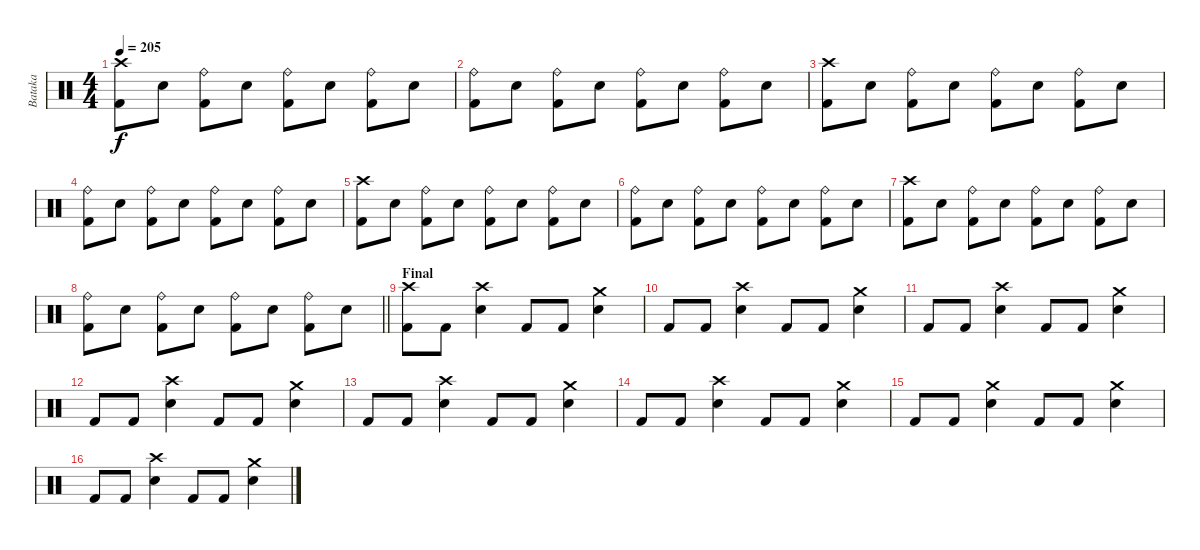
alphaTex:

\track ("Bataka" "Bataka") {instrument percussion}
\staff {score}
\articulation defaults
\ts (4 4)
\tempo 205
\clef neutral
\ks c
("Crash high (hit)" "Kick (hit) 2").8{dy f} "Snare (hit) 2".8 ("Ride (bell)" "Kick (hit) 2").8 "Snare (hit) 2".8 ("Ride (bell)" "Kick (hit) 2").8 "Snare (hit) 2".8 ("Ride (bell)" "Kick (hit) 2").8 "Snare (hit) 2".8 |
("Ride (bell)" "Kick (hit) 2").8 "Snare (hit) 2".8 ("Ride (bell)" "Kick (hit) 2").8 "Snare (hit) 2".8 ("Ride (bell)" "Kick (hit) 2").8 "Snare (hit) 2".8 ("Ride (bell)" "Kick (hit) 2").8 "Snare (hit) 2".8 |
("Crash high (hit)" "Kick (hit) 2").8 "Snare (hit) 2".8 ("Ride (bell)" "Kick (hit) 2").8 "Snare (hit) 2".8 ("Ride (bell)" "Kick (hit) 2").8 "Snare (hit) 2".8 ("Ride (bell)" "Kick (hit) 2").8 "Snare (hit) 2".8 |
("Ride (bell)" "Kick (hit) 2").8 "Snare (hit) 2".8 ("Ride (bell)" "Kick (hit) 2").8 "Snare (hit) 2".8 ("Ride (bell)" "Kick (hit) 2").8 "Snare (hit) 2".8 ("Ride (bell)" "Kick (hit) 2").8 "Snare (hit) 2".8 |
("Crash high (hit)" "Kick (hit) 2").8 "Snare (hit) 2".8 ("Ride (bell)" "Kick (hit) 2").8 "Snare (hit) 2".8 ("Ride (bell)" "Kick (hit) 2").8 "Snare (hit) 2".8 ("Ride (bell)" "Kick (hit) 2").8 "Snare (hit) 2".8 |
("Ride (bell)" "Kick (hit) 2").8 "Snare (hit) 2".8 ("Ride (bell)" "Kick (hit) 2").8 "Snare (hit) 2".8 ("Ride (bell)" "Kick (hit) 2").8 "Snare (hit) 2".8 ("Ride (bell)" "Kick (hit) 2").8 "Snare (hit) 2".8 |
("Crash high (hit)" "Kick (hit) 2").8 "Snare (hit) 2".8 ("Ride (bell)" "Kick (hit) 2").8 "Snare (hit) 2".8 ("Ride (bell)" "Kick (hit) 2").8 "Snare (hit) 2".8 ("Ride (bell)" "Kick (hit) 2").8 "Snare (hit) 2".8 |
\barLineRight lightlight
("Ride (bell)" "Kick (hit) 2").8 "Snare (hit) 2".8 ("Ride (bell)" "Kick (hit) 2").8 "Snare (hit) 2".8 ("Ride (bell)" "Kick (hit) 2").8 "Snare (hit) 2".8 ("Ride (bell)" "Kick (hit) 2").8 "Snare (hit) 2".8 |
\section ("" "Final")
("Crash high (hit)" "Kick (hit) 2").8 "Kick (hit) 2".8 ("Crash high (hit)" "Snare (hit) 2").4 "Kick (hit) 2".8 "Kick (hit) 2".8 ("Crash medium (hit)" "Snare (hit) 2").4 |
"Kick (hit) 2".8 "Kick (hit) 2".8 ("Crash high (hit)" "Snare (hit) 2").4 "Kick (hit) 2".8 "Kick (hit) 2".8 ("Crash medium (hit)" "Snare (hit) 2").4 |
"Kick (hit) 2".8 "Kick (hit) 2".8 ("Crash high (hit)" "Snare (hit) 2").4 "Kick (hit) 2".8 "Kick (hit) 2".8 ("Crash medium (hit)" "Snare (hit) 2").4 |
"Kick (hit) 2".8 "Kick (hit) 2".8 ("Crash high (hit)" "Snare (hit) 2").4 "Kick (hit) 2".8 "Kick (hit) 2".8 ("Crash medium (hit)" "Snare (hit) 2").4 |
"Kick (hit) 2".8 "Kick (hit) 2".8 ("Crash high (hit)" "Snare (hit) 2").4 "Kick (hit) 2".8 "Kick (hit) 2".8 ("Crash medium (hit)" "Snare (hit) 2").4 |
"Kick (hit) 2".8 "Kick (hit) 2".8 ("Crash high (hit)" "Snare (hit) 2").4 "Kick (hit) 2".8 "Kick (hit) 2".8 ("Crash medium (hit)" "Snare (hit) 2").4 |
"Kick (hit) 2".8 "Kick (hit) 2".8 ("Crash medium (hit)" "Snare (hit) 2").4 "Kick (hit) 2".8 "Kick (hit) 2".8 ("Crash medium (hit)" "Snare (hit) 2").4 |
"Kick (hit) 2".8 "Kick (hit) 2".8 ("Crash high (hit)" "Snare (hit) 2").4 "Kick (hit) 2".8 "Kick (hit) 2".8 ("Crash medium (hit)" "Snare (hit) 2").4
